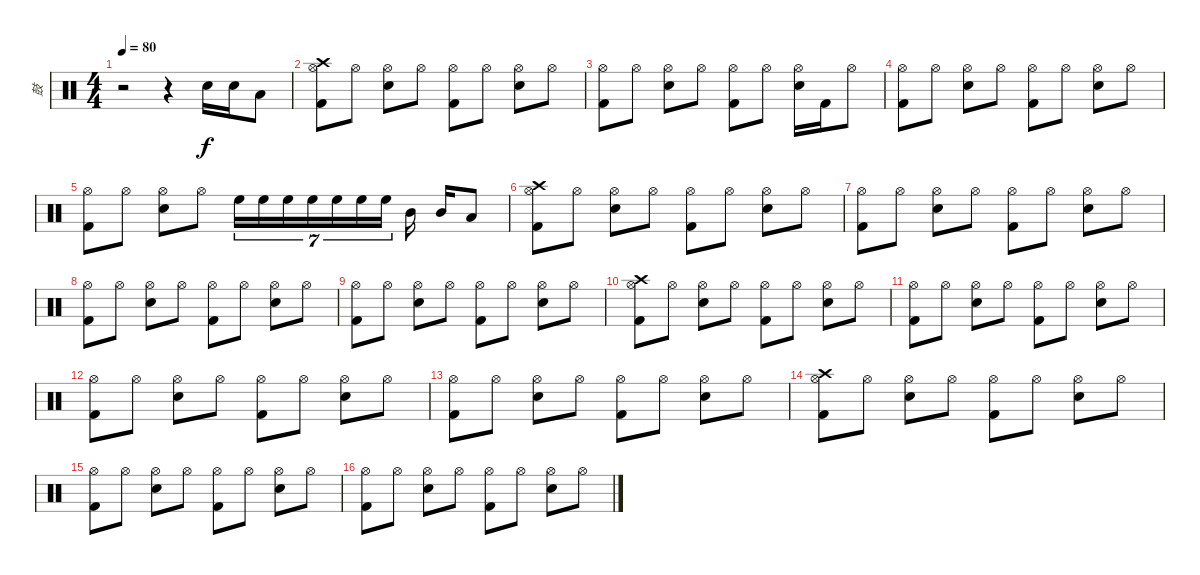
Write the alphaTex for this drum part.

\track ("鼓" "鼓") {instrument percussion}
\staff {score}
\articulation defaults
\ts (4 4)
\tempo 80
\clef neutral
\ks c
r.2{dy f} r.4 "Snare (hit) 2".16 "Snare (hit) 2".16 "Low Tom (hit)".8 |
("Hi-Hat (open)" "Crash high (hit)" "Kick (hit) 2").8 "Hi-Hat (open)".8 ("Hi-Hat (open)" "Snare (hit) 2").8 "Hi-Hat (open)".8 ("Hi-Hat (open)" "Kick (hit) 2").8 "Hi-Hat (open)".8 ("Hi-Hat (open)" "Snare (hit) 2").8 "Hi-Hat (open)".8 |
("Hi-Hat (open)" "Kick (hit) 2").8 "Hi-Hat (open)".8 ("Hi-Hat (open)" "Snare (hit) 2").8 "Hi-Hat (open)".8 ("Hi-Hat (open)" "Kick (hit) 2").8 "Hi-Hat (open)".8 ("Hi-Hat (open)" "Snare (hit) 2").16 "Kick (hit) 2".16 "Hi-Hat (open)".8 |
("Hi-Hat (open)" "Kick (hit) 2").8 "Hi-Hat (open)".8 ("Hi-Hat (open)" "Snare (hit) 2").8 "Hi-Hat (open)".8 ("Hi-Hat (open)" "Kick (hit) 2").8 "Hi-Hat (open)".8 ("Hi-Hat (open)" "Snare (hit) 2").8 "Hi-Hat (open)".8 |
("Hi-Hat (open)" "Kick (hit) 2").8 "Hi-Hat (open)".8 ("Hi-Hat (open)" "Snare (hit) 2").8 "Hi-Hat (open)".8 "High Floor Tom (hit)".16{tu (7 4)} "High Floor Tom (hit)".16{tu (7 4)} "High Floor Tom (hit)".16{tu (7 4)} "High Floor Tom (hit)".16{tu (7 4)} "High Floor Tom (hit)".16{tu (7 4)} "High Floor Tom (hit)".16{tu (7 4)} "High Floor Tom (hit)".16{tu (7 4)} "Mid Tom (hit)".16 "Mid Tom (hit)".16 "Low Tom (hit)".8 |
("Hi-Hat (open)" "Crash high (hit)" "Kick (hit) 2").8 "Hi-Hat (open)".8 ("Hi-Hat (open)" "Snare (hit) 2").8 "Hi-Hat (open)".8 ("Hi-Hat (open)" "Kick (hit) 2").8 "Hi-Hat (open)".8 ("Hi-Hat (open)" "Snare (hit) 2").8 "Hi-Hat (open)".8 |
("Hi-Hat (open)" "Kick (hit) 2").8 "Hi-Hat (open)".8 ("Hi-Hat (open)" "Snare (hit) 2").8 "Hi-Hat (open)".8 ("Hi-Hat (open)" "Kick (hit) 2").8 "Hi-Hat (open)".8 ("Hi-Hat (open)" "Snare (hit) 2").8 "Hi-Hat (open)".8 |
("Hi-Hat (open)" "Kick (hit) 2").8 "Hi-Hat (open)".8 ("Hi-Hat (open)" "Snare (hit) 2").8 "Hi-Hat (open)".8 ("Hi-Hat (open)" "Kick (hit) 2").8 "Hi-Hat (open)".8 ("Hi-Hat (open)" "Snare (hit) 2").8 "Hi-Hat (open)".8 |
("Hi-Hat (open)" "Kick (hit) 2").8 "Hi-Hat (open)".8 ("Hi-Hat (open)" "Snare (hit) 2").8 "Hi-Hat (open)".8 ("Hi-Hat (open)" "Kick (hit) 2").8 "Hi-Hat (open)".8 ("Hi-Hat (open)" "Snare (hit) 2").8 "Hi-Hat (open)".8 |
("Hi-Hat (open)" "Crash high (hit)" "Kick (hit) 2").8 "Hi-Hat (open)".8 ("Hi-Hat (open)" "Snare (hit) 2").8 "Hi-Hat (open)".8 ("Hi-Hat (open)" "Kick (hit) 2").8 "Hi-Hat (open)".8 ("Hi-Hat (open)" "Snare (hit) 2").8 "Hi-Hat (open)".8 |
("Hi-Hat (open)" "Kick (hit) 2").8 "Hi-Hat (open)".8 ("Hi-Hat (open)" "Snare (hit) 2").8 "Hi-Hat (open)".8 ("Hi-Hat (open)" "Kick (hit) 2").8 "Hi-Hat (open)".8 ("Hi-Hat (open)" "Snare (hit) 2").8 "Hi-Hat (open)".8 |
("Hi-Hat (open)" "Kick (hit) 2").8 "Hi-Hat (open)".8 ("Hi-Hat (open)" "Snare (hit) 2").8 "Hi-Hat (open)".8 ("Hi-Hat (open)" "Kick (hit) 2").8 "Hi-Hat (open)".8 ("Hi-Hat (open)" "Snare (hit) 2").8 "Hi-Hat (open)".8 |
("Hi-Hat (open)" "Kick (hit) 2").8 "Hi-Hat (open)".8 ("Hi-Hat (open)" "Snare (hit) 2").8 "Hi-Hat (open)".8 ("Hi-Hat (open)" "Kick (hit) 2").8 "Hi-Hat (open)".8 ("Hi-Hat (open)" "Snare (hit) 2").8 "Hi-Hat (open)".8 |
("Hi-Hat (open)" "Crash high (hit)" "Kick (hit) 2").8 "Hi-Hat (open)".8 ("Hi-Hat (open)" "Snare (hit) 2").8 "Hi-Hat (open)".8 ("Hi-Hat (open)" "Kick (hit) 2").8 "Hi-Hat (open)".8 ("Hi-Hat (open)" "Snare (hit) 2").8 "Hi-Hat (open)".8 |
("Hi-Hat (open)" "Kick (hit) 2").8 "Hi-Hat (open)".8 ("Hi-Hat (open)" "Snare (hit) 2").8 "Hi-Hat (open)".8 ("Hi-Hat (open)" "Kick (hit) 2").8 "Hi-Hat (open)".8 ("Hi-Hat (open)" "Snare (hit) 2").8 "Hi-Hat (open)".8 |
("Hi-Hat (open)" "Kick (hit) 2").8 "Hi-Hat (open)".8 ("Hi-Hat (open)" "Snare (hit) 2").8 "Hi-Hat (open)".8 ("Hi-Hat (open)" "Kick (hit) 2").8 "Hi-Hat (open)".8 ("Hi-Hat (open)" "Snare (hit) 2").8 "Hi-Hat (open)".8
